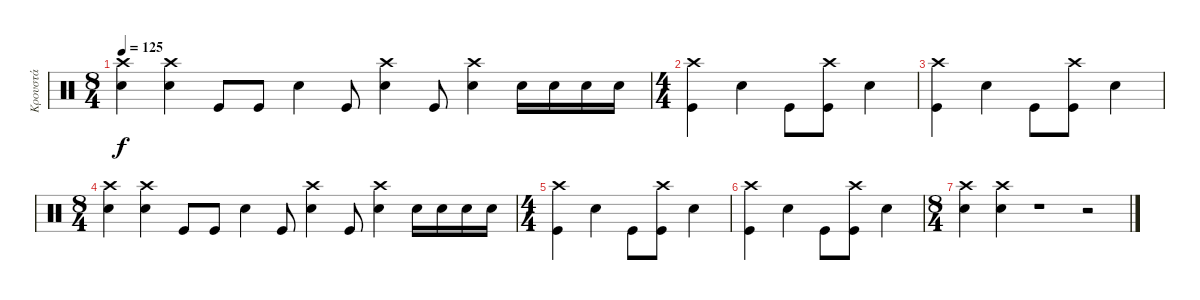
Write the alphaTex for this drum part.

\track ("Κρουστά" "Κρουστά") {instrument percussion}
\staff {score}
\articulation defaults
\ts (8 4)
\tempo 125
\clef neutral
\ks c
("Electric Snare (hit)" "Crash high (hit)").4{dy f} ("Crash high (hit)" "Electric Snare (hit)").4 "Kick (hit)".8 "Kick (hit)".8 "Electric Snare (hit)".4 "Kick (hit)".8 ("Crash high (hit)" "Electric Snare (hit)").4 "Kick (hit)".8 ("Crash high (hit)" "Electric Snare (hit)").4 "Electric Snare (hit)".16 "Electric Snare (hit)".16 "Electric Snare (hit)".16 "Electric Snare (hit)".16 |
\ts (4 4)
("Crash high (hit)" "Kick (hit)").4 "Electric Snare (hit)".4 "Kick (hit)".8 ("Crash high (hit)" "Kick (hit)").8 "Electric Snare (hit)".4 |
("Crash high (hit)" "Kick (hit)").4 "Electric Snare (hit)".4 "Kick (hit)".8 ("Crash high (hit)" "Kick (hit)").8 "Electric Snare (hit)".4 |
\ts (8 4)
("Electric Snare (hit)" "Crash high (hit)").4 ("Crash high (hit)" "Electric Snare (hit)").4 "Kick (hit)".8 "Kick (hit)".8 "Electric Snare (hit)".4 "Kick (hit)".8 ("Crash high (hit)" "Electric Snare (hit)").4 "Kick (hit)".8 ("Crash high (hit)" "Electric Snare (hit)").4 "Electric Snare (hit)".16 "Electric Snare (hit)".16 "Electric Snare (hit)".16 "Electric Snare (hit)".16 |
\ts (4 4)
("Crash high (hit)" "Kick (hit)").4 "Electric Snare (hit)".4 "Kick (hit)".8 ("Crash high (hit)" "Kick (hit)").8 "Electric Snare (hit)".4 |
("Crash high (hit)" "Kick (hit)").4 "Electric Snare (hit)".4 "Kick (hit)".8 ("Crash high (hit)" "Kick (hit)").8 "Electric Snare (hit)".4 |
\ts (8 4)
("Electric Snare (hit)" "Crash high (hit)").4 ("Crash high (hit)" "Electric Snare (hit)").4 r.1 r.2
